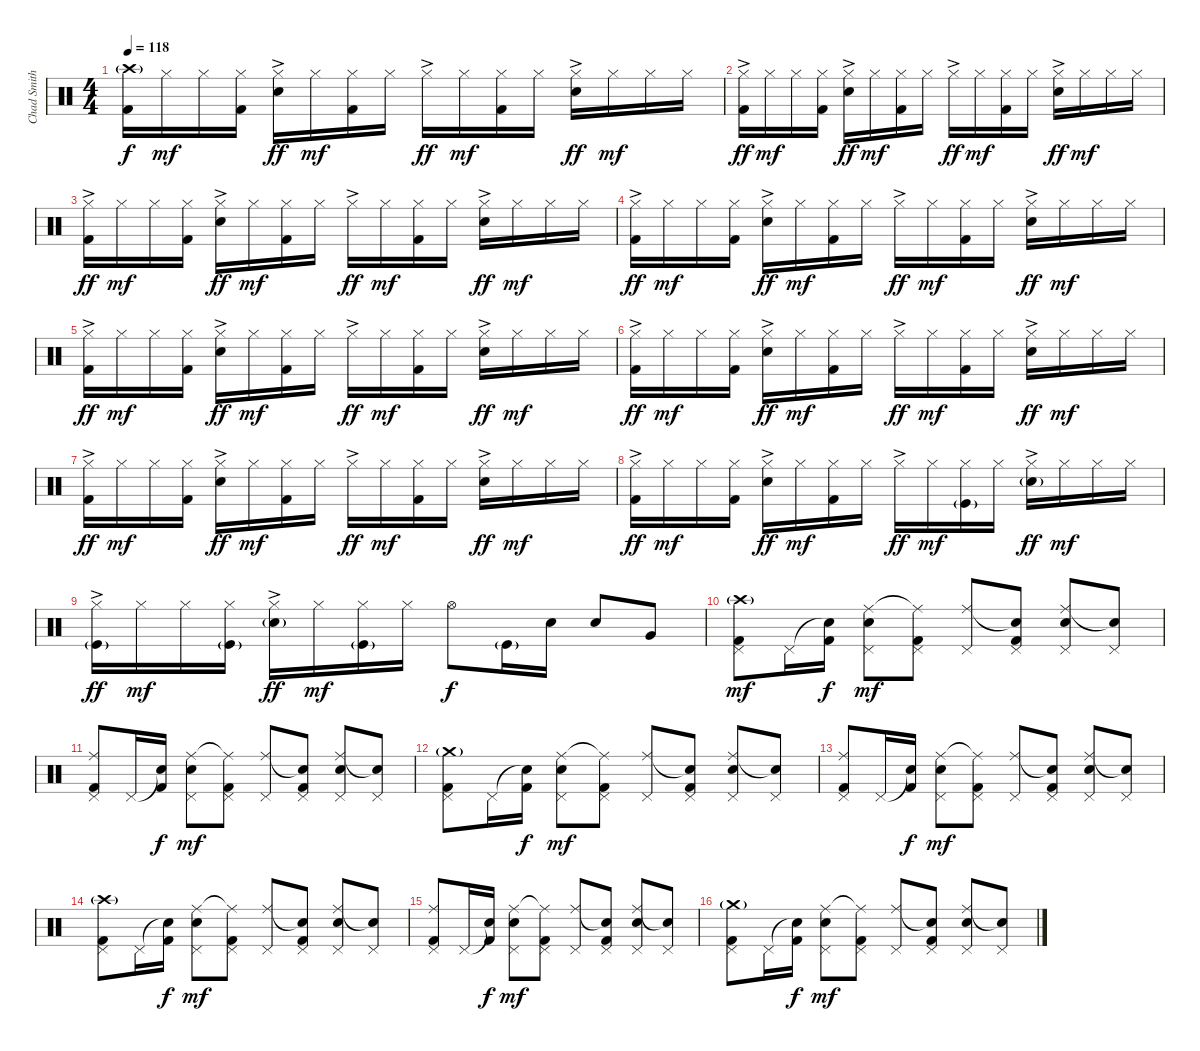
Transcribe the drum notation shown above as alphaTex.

\track ("Chad Smith" "Chad Smith") {instrument percussion}
\staff {score}
\articulation defaults
\ts (4 4)
\tempo 118
\clef neutral
\ks c
("Crash high (hit)"{g} "Kick (hit) 2").16{dy f} "Hi-Hat (closed)".16{dy mf} "Hi-Hat (closed)".16 ("Hi-Hat (closed)" "Kick (hit) 2").16 ("Hi-Hat (closed)"{ac} "Electric Snare (hit)").16{dy ff} "Hi-Hat (closed)".16{dy mf} ("Hi-Hat (closed)" "Kick (hit) 2").16 "Hi-Hat (closed)".16 "Hi-Hat (closed)"{ac}.16{dy ff} "Hi-Hat (closed)".16{dy mf} ("Hi-Hat (closed)" "Kick (hit) 2").16 "Hi-Hat (closed)".16 ("Hi-Hat (closed)"{ac} "Electric Snare (hit)").16{dy ff} "Hi-Hat (closed)".16{dy mf} "Hi-Hat (closed)".16 "Hi-Hat (closed)".16 |
("Hi-Hat (closed)"{ac} "Kick (hit) 2").16{dy ff} "Hi-Hat (closed)".16{dy mf} "Hi-Hat (closed)".16 ("Hi-Hat (closed)" "Kick (hit) 2").16 ("Hi-Hat (closed)"{ac} "Electric Snare (hit)").16{dy ff} "Hi-Hat (closed)".16{dy mf} ("Hi-Hat (closed)" "Kick (hit) 2").16 "Hi-Hat (closed)".16 "Hi-Hat (closed)"{ac}.16{dy ff} "Hi-Hat (closed)".16{dy mf} ("Hi-Hat (closed)" "Kick (hit) 2").16 "Hi-Hat (closed)".16 ("Hi-Hat (closed)"{ac} "Electric Snare (hit)").16{dy ff} "Hi-Hat (closed)".16{dy mf} "Hi-Hat (closed)".16 "Hi-Hat (closed)".16 |
("Hi-Hat (closed)"{ac} "Kick (hit) 2").16{dy ff} "Hi-Hat (closed)".16{dy mf} "Hi-Hat (closed)".16 ("Hi-Hat (closed)" "Kick (hit) 2").16 ("Hi-Hat (closed)"{ac} "Electric Snare (hit)").16{dy ff} "Hi-Hat (closed)".16{dy mf} ("Hi-Hat (closed)" "Kick (hit) 2").16 "Hi-Hat (closed)".16 "Hi-Hat (closed)"{ac}.16{dy ff} "Hi-Hat (closed)".16{dy mf} ("Hi-Hat (closed)" "Kick (hit) 2").16 "Hi-Hat (closed)".16 ("Hi-Hat (closed)"{ac} "Electric Snare (hit)").16{dy ff} "Hi-Hat (closed)".16{dy mf} "Hi-Hat (closed)".16 "Hi-Hat (closed)".16 |
("Hi-Hat (closed)"{ac} "Kick (hit) 2").16{dy ff} "Hi-Hat (closed)".16{dy mf} "Hi-Hat (closed)".16 ("Hi-Hat (closed)" "Kick (hit) 2").16 ("Hi-Hat (closed)"{ac} "Electric Snare (hit)").16{dy ff} "Hi-Hat (closed)".16{dy mf} ("Hi-Hat (closed)" "Kick (hit) 2").16 "Hi-Hat (closed)".16 "Hi-Hat (closed)"{ac}.16{dy ff} "Hi-Hat (closed)".16{dy mf} ("Hi-Hat (closed)" "Kick (hit) 2").16 "Hi-Hat (closed)".16 ("Hi-Hat (closed)"{ac} "Electric Snare (hit)").16{dy ff} "Hi-Hat (closed)".16{dy mf} "Hi-Hat (closed)".16 "Hi-Hat (closed)".16 |
("Hi-Hat (closed)"{ac} "Kick (hit) 2").16{dy ff} "Hi-Hat (closed)".16{dy mf} "Hi-Hat (closed)".16 ("Hi-Hat (closed)" "Kick (hit) 2").16 ("Hi-Hat (closed)"{ac} "Electric Snare (hit)").16{dy ff} "Hi-Hat (closed)".16{dy mf} ("Hi-Hat (closed)" "Kick (hit) 2").16 "Hi-Hat (closed)".16 "Hi-Hat (closed)"{ac}.16{dy ff} "Hi-Hat (closed)".16{dy mf} ("Hi-Hat (closed)" "Kick (hit) 2").16 "Hi-Hat (closed)".16 ("Hi-Hat (closed)"{ac} "Electric Snare (hit)").16{dy ff} "Hi-Hat (closed)".16{dy mf} "Hi-Hat (closed)".16 "Hi-Hat (closed)".16 |
("Hi-Hat (closed)"{ac} "Kick (hit) 2").16{dy ff} "Hi-Hat (closed)".16{dy mf} "Hi-Hat (closed)".16 ("Hi-Hat (closed)" "Kick (hit) 2").16 ("Hi-Hat (closed)"{ac} "Electric Snare (hit)").16{dy ff} "Hi-Hat (closed)".16{dy mf} ("Hi-Hat (closed)" "Kick (hit) 2").16 "Hi-Hat (closed)".16 "Hi-Hat (closed)"{ac}.16{dy ff} "Hi-Hat (closed)".16{dy mf} ("Hi-Hat (closed)" "Kick (hit) 2").16 "Hi-Hat (closed)".16 ("Hi-Hat (closed)"{ac} "Electric Snare (hit)").16{dy ff} "Hi-Hat (closed)".16{dy mf} "Hi-Hat (closed)".16 "Hi-Hat (closed)".16 |
("Hi-Hat (closed)"{ac} "Kick (hit) 2").16{dy ff} "Hi-Hat (closed)".16{dy mf} "Hi-Hat (closed)".16 ("Hi-Hat (closed)" "Kick (hit) 2").16 ("Hi-Hat (closed)"{ac} "Electric Snare (hit)").16{dy ff} "Hi-Hat (closed)".16{dy mf} ("Hi-Hat (closed)" "Kick (hit) 2").16 "Hi-Hat (closed)".16 "Hi-Hat (closed)"{ac}.16{dy ff} "Hi-Hat (closed)".16{dy mf} ("Hi-Hat (closed)" "Kick (hit) 2").16 "Hi-Hat (closed)".16 ("Hi-Hat (closed)"{ac} "Electric Snare (hit)").16{dy ff} "Hi-Hat (closed)".16{dy mf} "Hi-Hat (closed)".16 "Hi-Hat (closed)".16 |
("Hi-Hat (closed)"{ac} "Kick (hit) 2").16{dy ff} "Hi-Hat (closed)".16{dy mf} "Hi-Hat (closed)".16 ("Hi-Hat (closed)" "Kick (hit) 2").16 ("Hi-Hat (closed)"{ac} "Electric Snare (hit)").16{dy ff} "Hi-Hat (closed)".16{dy mf} ("Hi-Hat (closed)" "Kick (hit) 2").16 "Hi-Hat (closed)".16 "Hi-Hat (closed)"{ac}.16{dy ff} "Hi-Hat (closed)".16{dy mf} ("Hi-Hat (closed)" "Kick (hit)"{g}).16 "Hi-Hat (closed)".16 ("Hi-Hat (closed)"{ac} "Snare (hit) 2"{g}).16{dy ff} "Hi-Hat (closed)".16{dy mf} "Hi-Hat (closed)".16 "Hi-Hat (closed)".16 |
("Hi-Hat (closed)"{ac} "Kick (hit)"{g}).16{dy ff} "Hi-Hat (closed)".16{dy mf} "Hi-Hat (closed)".16 ("Hi-Hat (closed)" "Kick (hit)"{g}).16 ("Hi-Hat (closed)"{ac} "Snare (hit) 2"{g}).16{dy ff} "Hi-Hat (closed)".16{dy mf} ("Hi-Hat (closed)" "Kick (hit)"{g}).16 "Hi-Hat (closed)".16 "Hi-Hat (open)".8{dy f} "Kick (hit)"{g}.16 "Electric Snare (hit)".16 "Electric Snare (hit)".8 "Very Low Tom (hit)".8 |
("Crash high (hit)"{g} "Pedal Hi-Hat (hit)" "Kick (hit) 2").8{dy mf} "Pedal Hi-Hat (hit)".16 ("Snare (hit)"{t} "Kick (hit) 2").16{dy f} ("Ride (middle)" "Pedal Hi-Hat (hit)" "Snare (hit) 2").8{dy mf} ("Ride (middle)"{t} "Pedal Hi-Hat (hit)" "Kick (hit) 2").8 ("Ride (middle)" "Pedal Hi-Hat (hit)").8 ("Snare (hit)"{t} "Pedal Hi-Hat (hit)" "Kick (hit) 2").8 ("Ride (middle)" "Pedal Hi-Hat (hit)" "Snare (hit) 2").8 ("Snare (hit)"{t} "Pedal Hi-Hat (hit)").8 |
("Ride (middle)" "Pedal Hi-Hat (hit)" "Kick (hit) 2").8 "Pedal Hi-Hat (hit)".16 ("Snare (hit)"{t} "Kick (hit) 2").16{dy f} ("Ride (middle)" "Pedal Hi-Hat (hit)" "Snare (hit) 2").8{dy mf} ("Ride (middle)"{t} "Pedal Hi-Hat (hit)" "Kick (hit) 2").8 ("Ride (middle)" "Pedal Hi-Hat (hit)").8 ("Snare (hit)"{t} "Pedal Hi-Hat (hit)" "Kick (hit) 2").8 ("Ride (middle)" "Pedal Hi-Hat (hit)" "Snare (hit) 2").8 ("Snare (hit)"{t} "Pedal Hi-Hat (hit)").8 |
("Crash medium (hit)"{g} "Pedal Hi-Hat (hit)" "Kick (hit) 2").8 "Pedal Hi-Hat (hit)".16 ("Snare (hit)"{t} "Kick (hit) 2").16{dy f} ("Ride (middle)" "Pedal Hi-Hat (hit)" "Snare (hit) 2").8{dy mf} ("Ride (middle)"{t} "Pedal Hi-Hat (hit)" "Kick (hit) 2").8 ("Ride (middle)" "Pedal Hi-Hat (hit)").8 ("Snare (hit)"{t} "Pedal Hi-Hat (hit)" "Kick (hit) 2").8 ("Ride (middle)" "Pedal Hi-Hat (hit)" "Snare (hit) 2").8 ("Snare (hit)"{t} "Pedal Hi-Hat (hit)").8 |
("Ride (middle)" "Pedal Hi-Hat (hit)" "Kick (hit) 2").8 "Pedal Hi-Hat (hit)".16 ("Snare (hit)"{t} "Kick (hit) 2").16{dy f} ("Ride (middle)" "Pedal Hi-Hat (hit)" "Snare (hit) 2").8{dy mf} ("Ride (middle)"{t} "Pedal Hi-Hat (hit)" "Kick (hit) 2").8 ("Ride (middle)" "Pedal Hi-Hat (hit)").8 ("Snare (hit)"{t} "Pedal Hi-Hat (hit)" "Kick (hit) 2").8 ("Ride (middle)" "Pedal Hi-Hat (hit)" "Snare (hit) 2").8 ("Snare (hit)"{t} "Pedal Hi-Hat (hit)").8 |
("Crash high (hit)"{g} "Pedal Hi-Hat (hit)" "Kick (hit) 2").8 "Pedal Hi-Hat (hit)".16 ("Snare (hit)"{t} "Kick (hit) 2").16{dy f} ("Ride (middle)" "Pedal Hi-Hat (hit)" "Snare (hit) 2").8{dy mf} ("Ride (middle)"{t} "Pedal Hi-Hat (hit)" "Kick (hit) 2").8 ("Ride (middle)" "Pedal Hi-Hat (hit)").8 ("Snare (hit)"{t} "Pedal Hi-Hat (hit)" "Kick (hit) 2").8 ("Ride (middle)" "Pedal Hi-Hat (hit)" "Snare (hit) 2").8 ("Snare (hit)"{t} "Pedal Hi-Hat (hit)").8 |
("Ride (middle)" "Pedal Hi-Hat (hit)" "Kick (hit) 2").8 "Pedal Hi-Hat (hit)".16 ("Snare (hit)"{t} "Kick (hit) 2").16{dy f} ("Ride (middle)" "Pedal Hi-Hat (hit)" "Snare (hit) 2").8{dy mf} ("Ride (middle)"{t} "Pedal Hi-Hat (hit)" "Kick (hit) 2").8 ("Ride (middle)" "Pedal Hi-Hat (hit)").8 ("Snare (hit)"{t} "Pedal Hi-Hat (hit)" "Kick (hit) 2").8 ("Ride (middle)" "Pedal Hi-Hat (hit)" "Snare (hit) 2").8 ("Snare (hit)"{t} "Pedal Hi-Hat (hit)").8 |
("Crash medium (hit)"{g} "Pedal Hi-Hat (hit)" "Kick (hit) 2").8 "Pedal Hi-Hat (hit)".16 ("Snare (hit)"{t} "Kick (hit) 2").16{dy f} ("Ride (middle)" "Pedal Hi-Hat (hit)" "Snare (hit) 2").8{dy mf} ("Ride (middle)"{t} "Pedal Hi-Hat (hit)" "Kick (hit) 2").8 ("Ride (middle)" "Pedal Hi-Hat (hit)").8 ("Snare (hit)"{t} "Pedal Hi-Hat (hit)" "Kick (hit) 2").8 ("Ride (middle)" "Pedal Hi-Hat (hit)" "Snare (hit) 2").8 ("Snare (hit)"{t} "Pedal Hi-Hat (hit)").8
